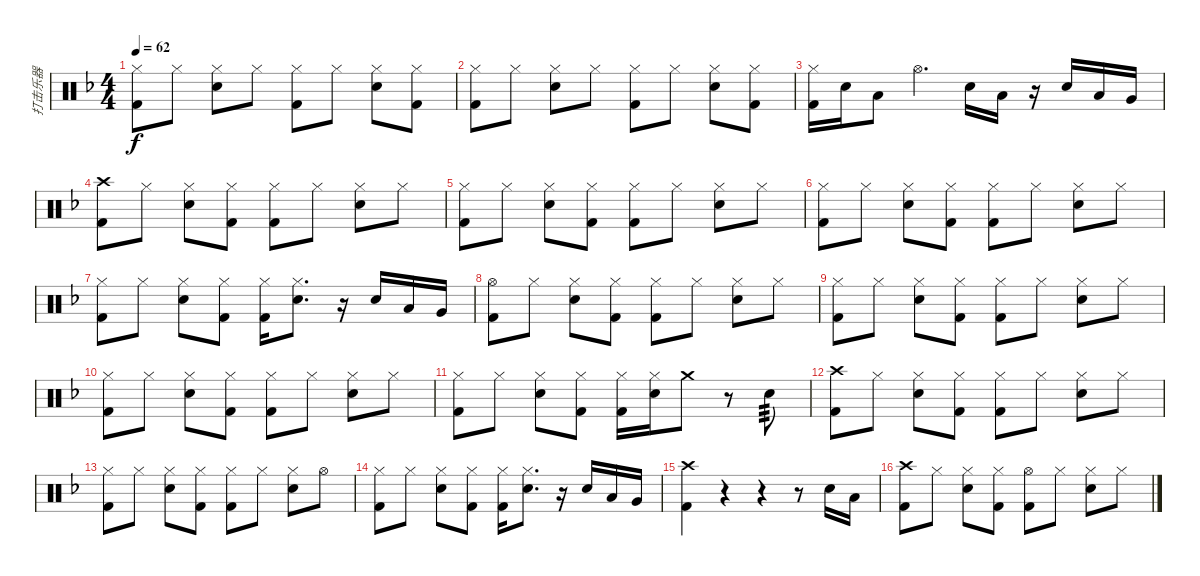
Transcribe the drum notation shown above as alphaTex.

\track ("打击乐器" "打击乐器") {instrument percussion}
\staff {score}
\articulation defaults
\ts (4 4)
\tempo 62
\clef neutral
\ks f
("Hi-Hat (closed)" "Kick (hit) 2").8{dy f} "Hi-Hat (closed)".8 ("Hi-Hat (closed)" "Snare (hit) 2").8 "Hi-Hat (closed)".8 ("Hi-Hat (closed)" "Kick (hit) 2").8 "Hi-Hat (closed)".8 ("Hi-Hat (closed)" "Snare (hit) 2").8 ("Hi-Hat (closed)" "Kick (hit) 2").8 |
("Hi-Hat (closed)" "Kick (hit) 2").8 "Hi-Hat (closed)".8 ("Hi-Hat (closed)" "Snare (hit) 2").8 "Hi-Hat (closed)".8 ("Hi-Hat (closed)" "Kick (hit) 2").8 "Hi-Hat (closed)".8 ("Hi-Hat (closed)" "Snare (hit) 2").8 ("Hi-Hat (closed)" "Kick (hit) 2").8 |
("Hi-Hat (closed)" "Kick (hit) 2").16 "Snare (hit) 2".16 "Low Tom (hit)".8 "Hi-Hat (open)".4{d} "Snare (hit) 2".16 "Low Tom (hit)".16 r.16 "Snare (hit) 2".16 "Low Tom (hit)".16 "Very Low Tom (hit)".16 |
("Crash high (hit)" "Kick (hit) 2").8 "Hi-Hat (closed)".8 ("Hi-Hat (closed)" "Snare (hit) 2").8 ("Hi-Hat (closed)" "Kick (hit) 2").8 ("Hi-Hat (closed)" "Kick (hit) 2").8 "Hi-Hat (closed)".8 ("Hi-Hat (closed)" "Snare (hit) 2").8 "Hi-Hat (closed)".8 |
("Hi-Hat (closed)" "Kick (hit) 2").8 "Hi-Hat (closed)".8 ("Hi-Hat (closed)" "Snare (hit) 2").8 ("Hi-Hat (closed)" "Kick (hit) 2").8 ("Hi-Hat (closed)" "Kick (hit) 2").8 "Hi-Hat (closed)".8 ("Hi-Hat (closed)" "Snare (hit) 2").8 "Hi-Hat (closed)".8 |
("Hi-Hat (closed)" "Kick (hit) 2").8 "Hi-Hat (closed)".8 ("Hi-Hat (closed)" "Snare (hit) 2").8 ("Hi-Hat (closed)" "Kick (hit) 2").8 ("Hi-Hat (closed)" "Kick (hit) 2").8 "Hi-Hat (closed)".8 ("Hi-Hat (closed)" "Snare (hit) 2").8 "Hi-Hat (closed)".8 |
("Hi-Hat (closed)" "Kick (hit) 2").8 "Hi-Hat (closed)".8 ("Hi-Hat (closed)" "Snare (hit) 2").8 ("Hi-Hat (closed)" "Kick (hit) 2").8 ("Hi-Hat (closed)" "Kick (hit) 2").16 ("Hi-Hat (closed)" "Snare (hit) 2").8{d} r.16 "Snare (hit) 2".16 "Low Tom (hit)".16 "Very Low Tom (hit)".16 |
("Hi-Hat (open)" "Kick (hit) 2").8 "Hi-Hat (closed)".8 ("Hi-Hat (closed)" "Snare (hit) 2").8 ("Hi-Hat (closed)" "Kick (hit) 2").8 ("Hi-Hat (closed)" "Kick (hit) 2").8 "Hi-Hat (closed)".8 ("Hi-Hat (closed)" "Snare (hit) 2").8 "Hi-Hat (closed)".8 |
("Hi-Hat (closed)" "Kick (hit) 2").8 "Hi-Hat (closed)".8 ("Hi-Hat (closed)" "Snare (hit) 2").8 ("Hi-Hat (closed)" "Kick (hit) 2").8 ("Hi-Hat (closed)" "Kick (hit) 2").8 "Hi-Hat (closed)".8 ("Hi-Hat (closed)" "Snare (hit) 2").8 "Hi-Hat (closed)".8 |
("Hi-Hat (closed)" "Kick (hit) 2").8 "Hi-Hat (closed)".8 ("Hi-Hat (closed)" "Snare (hit) 2").8 ("Hi-Hat (closed)" "Kick (hit) 2").8 ("Hi-Hat (closed)" "Kick (hit) 2").8 "Hi-Hat (closed)".8 ("Hi-Hat (closed)" "Snare (hit) 2").8 "Hi-Hat (closed)".8 |
("Hi-Hat (closed)" "Kick (hit) 2").8 "Hi-Hat (closed)".8 ("Hi-Hat (closed)" "Snare (hit) 2").8 ("Hi-Hat (closed)" "Kick (hit) 2").8 ("Hi-Hat (closed)" "Kick (hit) 2").16 ("Hi-Hat (closed)" "Snare (hit) 2").16 "Crash medium (hit)".8 r.8 "Snare (hit) 2".8{tp 3} |
("Crash high (hit)" "Kick (hit) 2").8 "Hi-Hat (closed)".8 ("Hi-Hat (closed)" "Snare (hit) 2").8 ("Hi-Hat (closed)" "Kick (hit) 2").8 ("Hi-Hat (closed)" "Kick (hit) 2").8 "Hi-Hat (closed)".8 ("Hi-Hat (closed)" "Snare (hit) 2").8 "Hi-Hat (closed)".8 |
("Hi-Hat (closed)" "Kick (hit) 2").8 "Hi-Hat (closed)".8 ("Hi-Hat (closed)" "Snare (hit) 2").8 ("Hi-Hat (closed)" "Kick (hit) 2").8 ("Hi-Hat (closed)" "Kick (hit) 2").8 "Hi-Hat (closed)".8 ("Hi-Hat (closed)" "Snare (hit) 2").8 "Hi-Hat (open)".8 |
("Hi-Hat (closed)" "Kick (hit) 2").8 "Hi-Hat (closed)".8 ("Hi-Hat (closed)" "Snare (hit) 2").8 ("Hi-Hat (closed)" "Kick (hit) 2").8 ("Hi-Hat (closed)" "Kick (hit) 2").16 ("Hi-Hat (closed)" "Snare (hit) 2").8{d} r.16 "Snare (hit) 2".16 "Low Tom (hit)".16 "Very Low Tom (hit)".16 |
("Crash high (hit)" "Kick (hit) 2").4 r.4 r.4 r.8 "Snare (hit) 2".16 "Low Tom (hit)".16 |
("Crash high (hit)" "Kick (hit) 2").8 "Hi-Hat (closed)".8 ("Hi-Hat (closed)" "Snare (hit) 2").8 ("Hi-Hat (closed)" "Kick (hit) 2").8 ("Hi-Hat (open)" "Kick (hit) 2").8 "Hi-Hat (closed)".8 ("Hi-Hat (closed)" "Snare (hit) 2").8 "Hi-Hat (closed)".8
